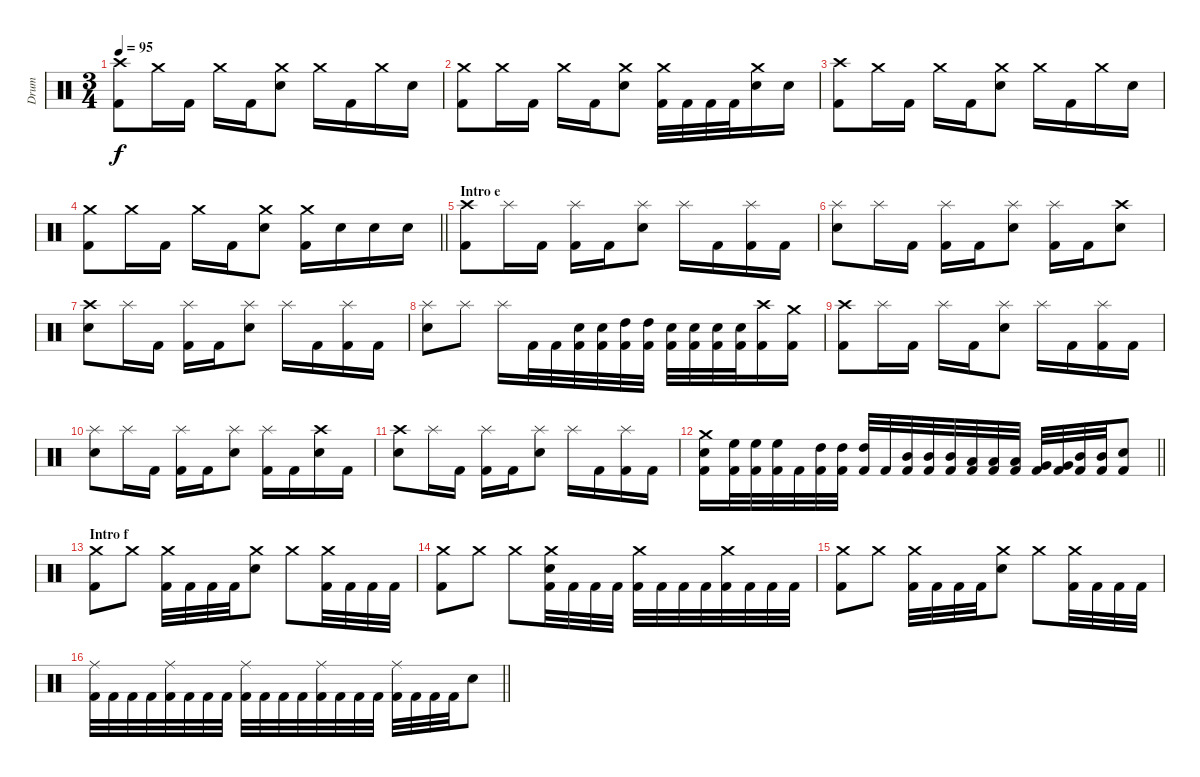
\track ("Drum" "Drum") {instrument percussion}
\staff {score}
\articulation defaults
\ts (3 4)
\tempo 95
\clef neutral
\ks c
("Crash high (hit)" "Kick (hit) 2").8{dy f} "Crash medium (hit)".16 "Kick (hit) 2".16 "Crash medium (hit)".16 "Kick (hit) 2".16 ("Crash medium (hit)" "Electric Snare (hit)").8 "Crash medium (hit)".16 "Kick (hit) 2".16 "Crash medium (hit)".16 "Electric Snare (hit)".16 |
("Crash medium (hit)" "Kick (hit) 2").8 "Crash medium (hit)".16 "Kick (hit) 2".16 "Crash medium (hit)".16 "Kick (hit) 2".16 ("Crash medium (hit)" "Electric Snare (hit)").8 ("Crash medium (hit)" "Kick (hit) 2").32 "Kick (hit) 2".32 "Kick (hit) 2".32 "Kick (hit) 2".32 ("Crash medium (hit)" "Electric Snare (hit)").16 "Electric Snare (hit)".16 |
("Crash high (hit)" "Kick (hit) 2").8 "Crash medium (hit)".16 "Kick (hit) 2".16 "Crash medium (hit)".16 "Kick (hit) 2".16 ("Crash medium (hit)" "Electric Snare (hit)").8 "Crash medium (hit)".16 "Kick (hit) 2".16 "Crash medium (hit)".16 "Electric Snare (hit)".16 |
\barLineRight lightlight
("Crash medium (hit)" "Kick (hit) 2").8 "Crash medium (hit)".16 "Kick (hit) 2".16 "Crash medium (hit)".16 "Kick (hit) 2".16 ("Crash medium (hit)" "Electric Snare (hit)").8 ("Crash medium (hit)" "Kick (hit) 2").16 "Electric Snare (hit)".16 "Electric Snare (hit)".16 "Electric Snare (hit)".16 |
\section ("" "Intro e")
("Crash high (hit)" "Kick (hit) 2").8 "Splash (hit)".16 "Kick (hit) 2".16 ("Splash (hit)" "Kick (hit) 2").16 "Kick (hit) 2".16 ("Splash (hit)" "Electric Snare (hit)").8 "Splash (hit)".16 "Kick (hit) 2".16 ("Splash (hit)" "Kick (hit) 2").16 "Kick (hit) 2".16 |
("Splash (hit)" "Electric Snare (hit)").8 "Splash (hit)".16 "Kick (hit) 2".16 ("Splash (hit)" "Kick (hit) 2").16 "Kick (hit) 2".16 ("Splash (hit)" "Electric Snare (hit)").8 ("Splash (hit)" "Kick (hit) 2").16 "Kick (hit) 2".16 ("Crash high (hit)" "Electric Snare (hit)").8 |
("Crash high (hit)" "Electric Snare (hit)").8 "Splash (hit)".16 "Kick (hit) 2".16 ("Splash (hit)" "Kick (hit) 2").16 "Kick (hit) 2".16 ("Splash (hit)" "Electric Snare (hit)").8 "Splash (hit)".16 "Kick (hit) 2".16 ("Splash (hit)" "Kick (hit) 2").16 "Kick (hit) 2".16 |
("Splash (hit)" "Electric Snare (hit)").8 "Splash (hit)".8 "Splash (hit)".16 "Kick (hit) 2".32 "Kick (hit) 2".32 ("Electric Snare (hit)" "Kick (hit) 2").32 ("Electric Snare (hit)" "Kick (hit) 2").32 ("High Tom (hit)" "Kick (hit) 2").32 ("High Tom (hit)" "Kick (hit) 2").32 ("Electric Snare (hit)" "Kick (hit) 2").32 ("Electric Snare (hit)" "Kick (hit) 2").32 ("Electric Snare (hit)" "Kick (hit) 2").32 ("Electric Snare (hit)" "Kick (hit) 2").32 ("Crash high (hit)" "Kick (hit) 2").16 ("Crash medium (hit)" "Kick (hit) 2").16 |
("Crash high (hit)" "Kick (hit) 2").8 "Splash (hit)".16 "Kick (hit) 2".16 "Splash (hit)".16 "Kick (hit) 2".16 ("Splash (hit)" "Electric Snare (hit)").8 "Splash (hit)".16 "Kick (hit) 2".16 ("Splash (hit)" "Kick (hit) 2").16 "Kick (hit) 2".16 |
("Splash (hit)" "Electric Snare (hit)").8 "Splash (hit)".16 "Kick (hit) 2".16 ("Splash (hit)" "Kick (hit) 2").16 "Kick (hit) 2".16 ("Splash (hit)" "Electric Snare (hit)").8 ("Splash (hit)" "Kick (hit) 2").16 "Kick (hit) 2".16 ("Crash high (hit)" "Electric Snare (hit)").16 "Kick (hit) 2".16 |
("Crash high (hit)" "Electric Snare (hit)").8 "Splash (hit)".16 "Kick (hit) 2".16 ("Splash (hit)" "Kick (hit) 2").16 "Kick (hit) 2".16 ("Splash (hit)" "Electric Snare (hit)").8 "Splash (hit)".16 "Kick (hit) 2".16 ("Splash (hit)" "Kick (hit) 2").16 "Kick (hit) 2".16 |
\barLineRight lightlight
("Crash medium (hit)" "Electric Snare (hit)" "Kick (hit) 2").16 ("High Floor Tom (hit)" "Kick (hit) 2").32 ("High Floor Tom (hit)" "Kick (hit) 2").32 ("High Floor Tom (hit)" "Kick (hit) 2").32 "Kick (hit) 2".32 ("High Tom (hit)" "Kick (hit) 2").32 ("High Tom (hit)" "Kick (hit) 2").32 ("High Tom (hit)" "Kick (hit) 2").32 "Kick (hit) 2".32 ("Mid Tom (hit)" "Kick (hit) 2").32 ("Mid Tom (hit)" "Kick (hit) 2").32 ("Mid Tom (hit)" "Kick (hit) 2").32 ("Low Tom (hit)" "Kick (hit) 2").32 ("Low Tom (hit)" "Kick (hit) 2").32 ("Low Tom (hit)" "Kick (hit) 2").32 ("Very Low Tom (hit)" "Kick (hit) 2").32 ("Very Low Tom (hit)" "Kick (hit) 2").32 ("Mid Tom (hit)" "Kick (hit) 2").32 ("Mid Tom (hit)" "Kick (hit) 2").32 ("Electric Snare (hit)" "Kick (hit) 2").8 |
\section ("" "Intro f")
("Crash medium (hit)" "Kick (hit) 2").8 "Crash medium (hit)".8 ("Crash medium (hit)" "Kick (hit) 2").32 "Kick (hit) 2".32 "Kick (hit) 2".32 "Kick (hit) 2".32 ("Crash medium (hit)" "Electric Snare (hit)").8 "Crash medium (hit)".8 ("Crash medium (hit)" "Kick (hit) 2").32 "Kick (hit) 2".32 "Kick (hit) 2".32 "Kick (hit) 2".32 |
("Crash medium (hit)" "Kick (hit) 2").8 "Crash medium (hit)".8 "Crash medium (hit)".8 ("Crash medium (hit)" "Electric Snare (hit)" "Kick (hit) 2").32 "Kick (hit) 2".32 "Kick (hit) 2".32 "Kick (hit) 2".32 ("Crash medium (hit)" "Kick (hit) 2").32 "Kick (hit) 2".32 "Kick (hit) 2".32 "Kick (hit) 2".32 ("Crash medium (hit)" "Kick (hit) 2").32 "Kick (hit) 2".32 "Kick (hit) 2".32 "Kick (hit) 2".32 |
("Crash medium (hit)" "Kick (hit) 2").8 "Crash medium (hit)".8 ("Crash medium (hit)" "Kick (hit) 2").32 "Kick (hit) 2".32 "Kick (hit) 2".32 "Kick (hit) 2".32 ("Crash medium (hit)" "Electric Snare (hit)").8 "Crash medium (hit)".8 ("Crash medium (hit)" "Kick (hit) 2").32 "Kick (hit) 2".32 "Kick (hit) 2".32 "Kick (hit) 2".32 |
\barLineRight lightlight
("Ride (middle)" "Kick (hit) 2").32 "Kick (hit) 2".32 "Kick (hit) 2".32 "Kick (hit) 2".32 ("Ride (middle)" "Kick (hit) 2").32 "Kick (hit) 2".32 "Kick (hit) 2".32 "Kick (hit) 2".32 ("Ride (middle)" "Kick (hit) 2").32 "Kick (hit) 2".32 "Kick (hit) 2".32 "Kick (hit) 2".32 ("Ride (middle)" "Kick (hit) 2").32 "Kick (hit) 2".32 "Kick (hit) 2".32 "Kick (hit) 2".32 ("Ride (middle)" "Kick (hit) 2").32 "Kick (hit) 2".32 "Kick (hit) 2".32 "Kick (hit) 2".32 "Electric Snare (hit)".8
